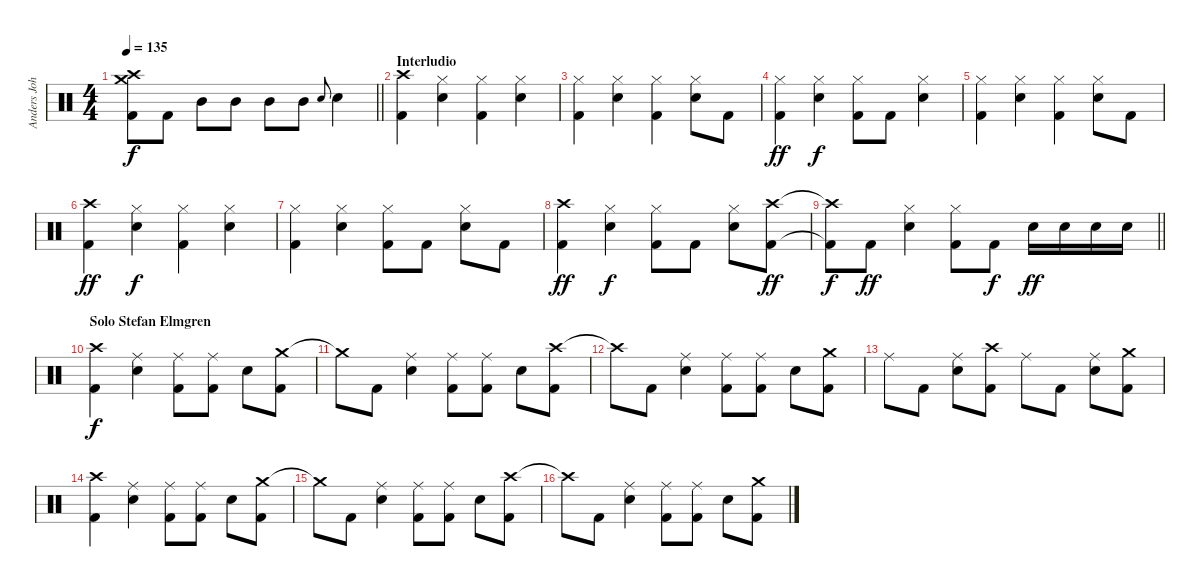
\track ("Anders Johansson" "Anders Joh") {instrument percussion}
\staff {score}
\articulation defaults
\ts (4 4)
\tempo 135
\clef neutral
\barLineRight lightlight
\ks c
("Crash medium (hit)"{t} "Crash high (hit)"{t} "Kick (hit) 2"{t}).8{dy f} "Kick (hit) 2".8 "Mid Tom (hit)".8 "Mid Tom (hit)".8 "Mid Tom (hit)".8 "Mid Tom (hit)".8 "Snare (hit) 2".8{gr onbeat} "Snare (hit) 2".4 |
\section ("" "Interludio")
("Crash high (hit)" "Kick (hit) 2").4 ("Hi-Hat (closed)" "Snare (hit) 2").4 ("Hi-Hat (closed)" "Kick (hit) 2").4 ("Hi-Hat (closed)" "Snare (hit) 2").4 |
("Hi-Hat (closed)" "Kick (hit) 2").4 ("Hi-Hat (closed)" "Snare (hit) 2").4 ("Hi-Hat (closed)" "Kick (hit) 2").4 ("Hi-Hat (closed)" "Snare (hit) 2").8 "Kick (hit) 2".8 |
("Hi-Hat (closed)" "Kick (hit) 2").4{dy ff} ("Hi-Hat (closed)" "Snare (hit) 2").4{dy f} ("Hi-Hat (closed)" "Kick (hit) 2").8 "Kick (hit) 2".8 ("Hi-Hat (closed)" "Snare (hit) 2").4 |
("Hi-Hat (closed)" "Kick (hit) 2").4 ("Hi-Hat (closed)" "Snare (hit) 2").4 ("Hi-Hat (closed)" "Kick (hit) 2").4 ("Hi-Hat (closed)" "Snare (hit) 2").8 "Kick (hit) 2".8 |
("Crash high (hit)" "Kick (hit) 2").4{dy ff} ("Hi-Hat (closed)" "Snare (hit) 2").4{dy f} ("Hi-Hat (closed)" "Kick (hit) 2").4 ("Hi-Hat (closed)" "Snare (hit) 2").4 |
("Hi-Hat (closed)" "Kick (hit) 2").4 ("Hi-Hat (closed)" "Snare (hit) 2").4 ("Hi-Hat (closed)" "Kick (hit) 2").8 "Kick (hit) 2".8 ("Hi-Hat (closed)" "Snare (hit) 2").8 "Kick (hit) 2".8 |
("Crash high (hit)" "Kick (hit) 2").4{dy ff} ("Hi-Hat (closed)" "Snare (hit) 2").4{dy f} ("Hi-Hat (closed)" "Kick (hit) 2").8 "Kick (hit) 2".8 ("Hi-Hat (closed)" "Snare (hit) 2").8 ("Crash high (hit)" "Kick (hit) 2").8{dy ff} |
\barLineRight lightlight
("Crash high (hit)"{t} "Kick (hit) 2"{t}).8{dy f} "Kick (hit) 2".8{dy ff} ("Hi-Hat (closed)" "Snare (hit) 2").4 ("Hi-Hat (closed)" "Kick (hit) 2").8 "Kick (hit) 2".8{dy f} "Snare (hit) 2".16{dy ff} "Snare (hit) 2".16 "Snare (hit) 2".16 "Snare (hit) 2".16 |
\section ("" "Solo Stefan Elmgren")
("Crash high (hit)" "Kick (hit) 2").4{dy f} ("Ride (middle)" "Snare (hit) 2").4 ("Ride (middle)" "Kick (hit) 2").8 ("Ride (middle)" "Kick (hit) 2").8 "Snare (hit) 2".8 ("Crash medium (hit)" "Kick (hit) 2").8 |
"Crash medium (hit)"{t}.8 "Kick (hit) 2".8 ("Ride (middle)" "Snare (hit) 2").4 ("Ride (middle)" "Kick (hit) 2").8 ("Ride (middle)" "Kick (hit) 2").8 "Snare (hit) 2".8 ("Crash high (hit)" "Kick (hit) 2").8 |
"Crash high (hit)"{t}.8 "Kick (hit) 2".8 ("Ride (middle)" "Snare (hit) 2").4 ("Ride (middle)" "Kick (hit) 2").8 ("Ride (middle)" "Kick (hit) 2").8 "Snare (hit) 2".8 ("Crash medium (hit)" "Kick (hit) 2").8 |
"Ride (middle)".8 "Kick (hit) 2".8 ("Ride (middle)" "Snare (hit) 2").8 ("Crash high (hit)" "Kick (hit) 2").8 "Ride (middle)".8 "Kick (hit) 2".8 ("Ride (middle)" "Snare (hit) 2").8 ("Crash medium (hit)" "Kick (hit) 2").8 |
("Crash high (hit)" "Kick (hit) 2").4 ("Ride (middle)" "Snare (hit) 2").4 ("Ride (middle)" "Kick (hit) 2").8 ("Ride (middle)" "Kick (hit) 2").8 "Snare (hit) 2".8 ("Crash medium (hit)" "Kick (hit) 2").8 |
"Crash medium (hit)"{t}.8 "Kick (hit) 2".8 ("Ride (middle)" "Snare (hit) 2").4 ("Ride (middle)" "Kick (hit) 2").8 ("Ride (middle)" "Kick (hit) 2").8 "Snare (hit) 2".8 ("Crash high (hit)" "Kick (hit) 2").8 |
"Crash high (hit)"{t}.8 "Kick (hit) 2".8 ("Ride (middle)" "Snare (hit) 2").4 ("Ride (middle)" "Kick (hit) 2").8 ("Ride (middle)" "Kick (hit) 2").8 "Snare (hit) 2".8 ("Crash medium (hit)" "Kick (hit) 2").8
